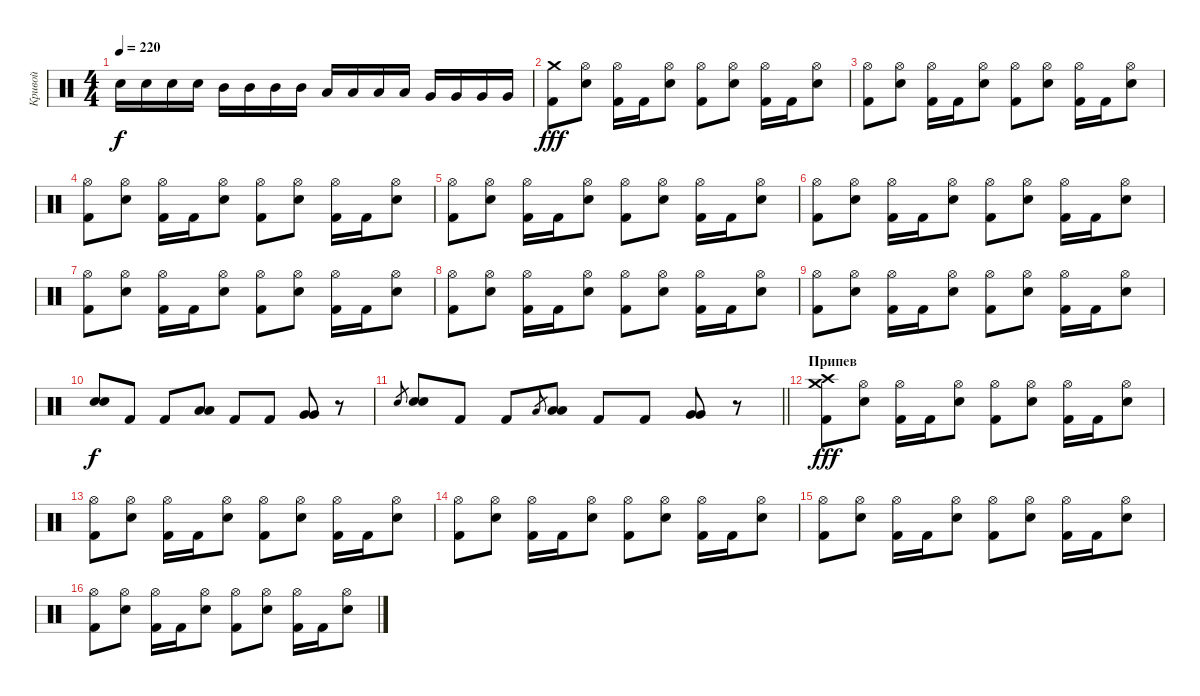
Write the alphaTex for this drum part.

\track ("Кривой" "Кривой") {instrument percussion}
\staff {score}
\articulation defaults
\ts (4 4)
\tempo 220
\clef neutral
\ks c "Electric Snare (hit)".16{dy f} "Electric Snare (hit)".16 "Electric Snare (hit)".16 "Electric Snare (hit)".16 "Mid Tom (hit)".16 "Mid Tom (hit)".16 "Mid Tom (hit)".16 "Mid Tom (hit)".16 "Low Tom (hit)".16 "Low Tom (hit)".16 "Low Tom (hit)".16 "Low Tom (hit)".16 "Very Low Tom (hit)".16 "Very Low Tom (hit)".16 "Very Low Tom (hit)".16 "Very Low Tom (hit)".16
|
("Crash medium (hit)" "Kick (hit) 2").8{dy fff} ("Hi-Hat (open)" "Electric Snare (hit)").8 ("Hi-Hat (open)" "Kick (hit) 2").16 "Kick (hit) 2".16 ("Hi-Hat (open)" "Electric Snare (hit)").8 ("Hi-Hat (open)" "Kick (hit) 2").8 ("Hi-Hat (open)" "Electric Snare (hit)").8 ("Hi-Hat (open)" "Kick (hit) 2").16 "Kick (hit) 2".16 ("Hi-Hat (open)" "Electric Snare (hit)").8 |
("Hi-Hat (open)" "Kick (hit) 2").8 ("Hi-Hat (open)" "Electric Snare (hit)").8 ("Hi-Hat (open)" "Kick (hit) 2").16 "Kick (hit) 2".16 ("Hi-Hat (open)" "Electric Snare (hit)").8 ("Hi-Hat (open)" "Kick (hit) 2").8 ("Hi-Hat (open)" "Electric Snare (hit)").8 ("Hi-Hat (open)" "Kick (hit) 2").16 "Kick (hit) 2".16 ("Hi-Hat (open)" "Electric Snare (hit)").8 |
("Hi-Hat (open)" "Kick (hit) 2").8 ("Hi-Hat (open)" "Electric Snare (hit)").8 ("Hi-Hat (open)" "Kick (hit) 2").16 "Kick (hit) 2".16 ("Hi-Hat (open)" "Electric Snare (hit)").8 ("Hi-Hat (open)" "Kick (hit) 2").8 ("Hi-Hat (open)" "Electric Snare (hit)").8 ("Hi-Hat (open)" "Kick (hit) 2").16 "Kick (hit) 2".16 ("Hi-Hat (open)" "Electric Snare (hit)").8 |
("Hi-Hat (open)" "Kick (hit) 2").8 ("Hi-Hat (open)" "Electric Snare (hit)").8 ("Hi-Hat (open)" "Kick (hit) 2").16 "Kick (hit) 2".16 ("Hi-Hat (open)" "Electric Snare (hit)").8 ("Hi-Hat (open)" "Kick (hit) 2").8 ("Hi-Hat (open)" "Electric Snare (hit)").8 ("Hi-Hat (open)" "Kick (hit) 2").16 "Kick (hit) 2".16 ("Hi-Hat (open)" "Electric Snare (hit)").8 |
("Hi-Hat (open)" "Kick (hit) 2").8 ("Hi-Hat (open)" "Electric Snare (hit)").8 ("Hi-Hat (open)" "Kick (hit) 2").16 "Kick (hit) 2".16 ("Hi-Hat (open)" "Electric Snare (hit)").8 ("Hi-Hat (open)" "Kick (hit) 2").8 ("Hi-Hat (open)" "Electric Snare (hit)").8 ("Hi-Hat (open)" "Kick (hit) 2").16 "Kick (hit) 2".16 ("Hi-Hat (open)" "Electric Snare (hit)").8 |
("Hi-Hat (open)" "Kick (hit) 2").8 ("Hi-Hat (open)" "Electric Snare (hit)").8 ("Hi-Hat (open)" "Kick (hit) 2").16 "Kick (hit) 2".16 ("Hi-Hat (open)" "Electric Snare (hit)").8 ("Hi-Hat (open)" "Kick (hit) 2").8 ("Hi-Hat (open)" "Electric Snare (hit)").8 ("Hi-Hat (open)" "Kick (hit) 2").16 "Kick (hit) 2".16 ("Hi-Hat (open)" "Electric Snare (hit)").8 |
("Hi-Hat (open)" "Kick (hit) 2").8 ("Hi-Hat (open)" "Electric Snare (hit)").8 ("Hi-Hat (open)" "Kick (hit) 2").16 "Kick (hit) 2".16 ("Hi-Hat (open)" "Electric Snare (hit)").8 ("Hi-Hat (open)" "Kick (hit) 2").8 ("Hi-Hat (open)" "Electric Snare (hit)").8 ("Hi-Hat (open)" "Kick (hit) 2").16 "Kick (hit) 2".16 ("Hi-Hat (open)" "Electric Snare (hit)").8 |
("Hi-Hat (open)" "Kick (hit) 2").8 ("Hi-Hat (open)" "Electric Snare (hit)").8 ("Hi-Hat (open)" "Kick (hit) 2").16 "Kick (hit) 2".16 ("Hi-Hat (open)" "Electric Snare (hit)").8 ("Hi-Hat (open)" "Kick (hit) 2").8 ("Hi-Hat (open)" "Electric Snare (hit)").8 ("Hi-Hat (open)" "Kick (hit) 2").16 "Kick (hit) 2".16 ("Hi-Hat (open)" "Electric Snare (hit)").8 |
("Electric Snare (hit)" "Electric Snare (hit)").8{dy f} "Kick (hit) 2".8 "Kick (hit) 2".8 ("Low Tom (hit)" "Low Tom (hit)").8 "Kick (hit) 2".8 "Kick (hit) 2".8 ("Very Low Tom (hit)" "Very Low Tom (hit)").8 r.8 |
\barLineRight lightlight "Electric Snare (hit)".8{gr}
("Electric Snare (hit)" "Electric Snare (hit)").8 "Kick (hit) 2".8 "Kick (hit) 2".8 "Low Tom (hit)".8{gr} ("Low Tom (hit)" "Low Tom (hit)").8 "Kick (hit) 2".8 "Kick (hit) 2".8 ("Very Low Tom (hit)" "Very Low Tom (hit)").8 r.8 |
\section ("" "Припев")
("Crash medium (hit)" "Crash high (hit)" "Kick (hit) 2").8{dy fff} ("Hi-Hat (open)" "Electric Snare (hit)").8 ("Hi-Hat (open)" "Kick (hit) 2").16 "Kick (hit) 2".16 ("Hi-Hat (open)" "Electric Snare (hit)").8 ("Hi-Hat (open)" "Kick (hit) 2").8 ("Hi-Hat (open)" "Electric Snare (hit)").8 ("Hi-Hat (open)" "Kick (hit) 2").16 "Kick (hit) 2".16 ("Hi-Hat (open)" "Electric Snare (hit)").8 |
("Hi-Hat (open)" "Kick (hit) 2").8 ("Hi-Hat (open)" "Electric Snare (hit)").8 ("Hi-Hat (open)" "Kick (hit) 2").16 "Kick (hit) 2".16 ("Hi-Hat (open)" "Electric Snare (hit)").8 ("Hi-Hat (open)" "Kick (hit) 2").8 ("Hi-Hat (open)" "Electric Snare (hit)").8 ("Hi-Hat (open)" "Kick (hit) 2").16 "Kick (hit) 2".16 ("Hi-Hat (open)" "Electric Snare (hit)").8 |
("Hi-Hat (open)" "Kick (hit) 2").8 ("Hi-Hat (open)" "Electric Snare (hit)").8 ("Hi-Hat (open)" "Kick (hit) 2").16 "Kick (hit) 2".16 ("Hi-Hat (open)" "Electric Snare (hit)").8 ("Hi-Hat (open)" "Kick (hit) 2").8 ("Hi-Hat (open)" "Electric Snare (hit)").8 ("Hi-Hat (open)" "Kick (hit) 2").16 "Kick (hit) 2".16 ("Hi-Hat (open)" "Electric Snare (hit)").8 |
("Hi-Hat (open)" "Kick (hit) 2").8 ("Hi-Hat (open)" "Electric Snare (hit)").8 ("Hi-Hat (open)" "Kick (hit) 2").16 "Kick (hit) 2".16 ("Hi-Hat (open)" "Electric Snare (hit)").8 ("Hi-Hat (open)" "Kick (hit) 2").8 ("Hi-Hat (open)" "Electric Snare (hit)").8 ("Hi-Hat (open)" "Kick (hit) 2").16 "Kick (hit) 2".16 ("Hi-Hat (open)" "Electric Snare (hit)").8 |
("Hi-Hat (open)" "Kick (hit) 2").8 ("Hi-Hat (open)" "Electric Snare (hit)").8 ("Hi-Hat (open)" "Kick (hit) 2").16 "Kick (hit) 2".16 ("Hi-Hat (open)" "Electric Snare (hit)").8 ("Hi-Hat (open)" "Kick (hit) 2").8 ("Hi-Hat (open)" "Electric Snare (hit)").8 ("Hi-Hat (open)" "Kick (hit) 2").16 "Kick (hit) 2".16 ("Hi-Hat (open)" "Electric Snare (hit)").8
